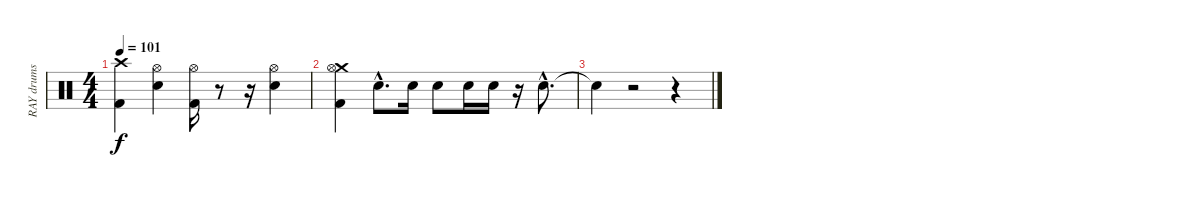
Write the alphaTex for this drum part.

\track ("RAY drums" "RAY drums") {instrument percussion}
\staff {score}
\articulation defaults
\ts (4 4)
\tempo 101
\clef neutral
\ks c
("Kick (hit) 2" "Crash high (hit)").4{dy f} ("Electric Snare (hit)" "Hi-Hat (open)").4 ("Kick (hit) 2" "Hi-Hat (open)").16 r.8 r.16 ("Electric Snare (hit)" "Hi-Hat (open)").4 |
("Crash medium (hit)" "Kick (hit) 2" "Hi-Hat (open)").4 "Electric Snare (hit)"{hac}.8{d} "Electric Snare (hit)".16 "Electric Snare (hit)".8 "Electric Snare (hit)".16 "Electric Snare (hit)".16 r.16 "Electric Snare (hit)"{hac}.8{d} |
"Snare (hit)"{t}.4 r.2 r.4
